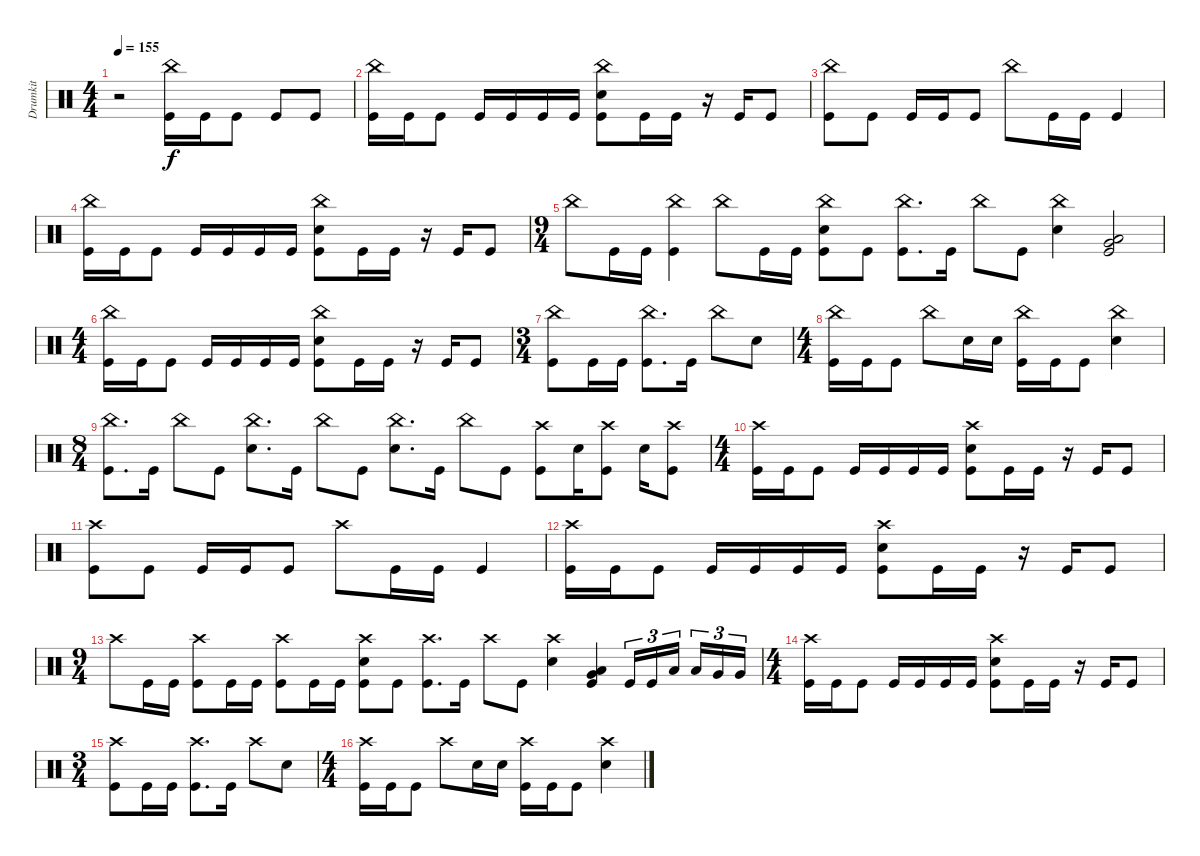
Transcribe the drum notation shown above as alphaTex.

\track ("Drumkit" "Drumkit") {instrument percussion}
\staff {score}
\articulation defaults
\ts (4 4)
\tempo 155
\clef neutral
\ks c
r.2{dy f} ("China (hit)" "Kick (hit)").16 "Kick (hit)".16 "Kick (hit)".8 "Kick (hit)".8 "Kick (hit)".8 |
("China (hit)" "Kick (hit)").16 "Kick (hit)".16 "Kick (hit)".8 "Kick (hit)".16 "Kick (hit)".16 "Kick (hit)".16 "Kick (hit)".16 ("China (hit)" "Kick (hit)" "Snare (hit) 2").8 "Kick (hit)".16 "Kick (hit)".16 r.16 "Kick (hit)".16 "Kick (hit)".8 |
("China (hit)" "Kick (hit)").8 "Kick (hit)".8 "Kick (hit)".16 "Kick (hit)".16 "Kick (hit)".8 "China (hit)".8 "Kick (hit)".16 "Kick (hit)".16 "Kick (hit)".4 |
("China (hit)" "Kick (hit)").16 "Kick (hit)".16 "Kick (hit)".8 "Kick (hit)".16 "Kick (hit)".16 "Kick (hit)".16 "Kick (hit)".16 ("China (hit)" "Kick (hit)" "Snare (hit) 2").8 "Kick (hit)".16 "Kick (hit)".16 r.16 "Kick (hit)".16 "Kick (hit)".8 |
\ts (9 4)
"China (hit)".8 "Kick (hit)".16 "Kick (hit)".16 ("China (hit)" "Kick (hit)").4 "China (hit)".8 "Kick (hit)".16 "Kick (hit)".16 ("China (hit)" "Kick (hit)" "Snare (hit) 2").8 "Kick (hit)".8 ("China (hit)" "Kick (hit)").8{d} "Kick (hit)".16 "China (hit)".8 "Kick (hit)".8 ("China (hit)" "Snare (hit) 2").4 ("Low Floor Tom (hit)" "Kick (hit)" "Very Low Tom (hit)").2 |
\ts (4 4)
("China (hit)" "Kick (hit)").16 "Kick (hit)".16 "Kick (hit)".8 "Kick (hit)".16 "Kick (hit)".16 "Kick (hit)".16 "Kick (hit)".16 ("China (hit)" "Kick (hit)" "Snare (hit) 2").8 "Kick (hit)".16 "Kick (hit)".16 r.16 "Kick (hit)".16 "Kick (hit)".8 |
\ts (3 4)
("China (hit)" "Kick (hit)").8 "Kick (hit)".16 "Kick (hit)".16 ("China (hit)" "Kick (hit)").8{d} "Kick (hit)".16 "China (hit)".8 "Snare (hit) 2".8 |
\ts (4 4)
("China (hit)" "Kick (hit)").16 "Kick (hit)".16 "Kick (hit)".8 "China (hit)".8 "Snare (hit) 2".16 "Snare (hit) 2".16 ("China (hit)" "Kick (hit)").16 "Kick (hit)".16 "Kick (hit)".8 ("China (hit)" "Snare (hit) 2").4 |
\ts (8 4)
("China (hit)" "Kick (hit)").8{d} "Kick (hit)".16 "China (hit)".8 "Kick (hit)".8 ("China (hit)" "Snare (hit) 2").8{d} "Kick (hit)".16 "China (hit)".8 "Kick (hit)".8 ("China (hit)" "Snare (hit) 2").8{d} "Kick (hit)".16 "China (hit)".8 "Kick (hit)".8 ("Crash high (hit)" "Kick (hit)").8 "Snare (hit) 2".16 ("Crash high (hit)" "Kick (hit)").8 "Snare (hit) 2".16 ("Crash high (hit)" "Kick (hit)").8 |
\ts (4 4)
("Crash high (hit)" "Kick (hit)").16 "Kick (hit)".16 "Kick (hit)".8 "Kick (hit)".16 "Kick (hit)".16 "Kick (hit)".16 "Kick (hit)".16 ("Crash high (hit)" "Kick (hit)" "Snare (hit) 2").8 "Kick (hit)".16 "Kick (hit)".16 r.16 "Kick (hit)".16 "Kick (hit)".8 |
("Crash high (hit)" "Kick (hit)").8 "Kick (hit)".8 "Kick (hit)".16 "Kick (hit)".16 "Kick (hit)".8 "Crash high (hit)".8 "Kick (hit)".16 "Kick (hit)".16 "Kick (hit)".4 |
("Crash high (hit)" "Kick (hit)").16 "Kick (hit)".16 "Kick (hit)".8 "Kick (hit)".16 "Kick (hit)".16 "Kick (hit)".16 "Kick (hit)".16 ("Crash high (hit)" "Kick (hit)" "Snare (hit) 2").8 "Kick (hit)".16 "Kick (hit)".16 r.16 "Kick (hit)".16 "Kick (hit)".8 |
\ts (9 4)
"Crash high (hit)".8 "Kick (hit)".16 "Kick (hit)".16 ("Crash high (hit)" "Kick (hit)").8 "Kick (hit)".16 "Kick (hit)".16 ("Crash high (hit)" "Kick (hit)").8 "Kick (hit)".16 "Kick (hit)".16 ("Crash high (hit)" "Kick (hit)" "Snare (hit) 2").8 "Kick (hit)".8 ("Crash high (hit)" "Kick (hit)").8{d} "Kick (hit)".16 "Crash high (hit)".8 "Kick (hit)".8 ("Crash high (hit)" "Snare (hit) 2").4 ("Low Floor Tom (hit)" "Kick (hit)" "Very Low Tom (hit)").4 "Kick (hit)".16{tu (3 2)} "Kick (hit)".16{tu (3 2)} "Low Tom (hit)".16{tu (3 2)} "Low Tom (hit)".16{tu (3 2)} "Very Low Tom (hit)".16{tu (3 2)} "Very Low Tom (hit)".16{tu (3 2)} |
\ts (4 4)
("Crash high (hit)" "Kick (hit)").16 "Kick (hit)".16 "Kick (hit)".8 "Kick (hit)".16 "Kick (hit)".16 "Kick (hit)".16 "Kick (hit)".16 ("Crash high (hit)" "Kick (hit)" "Snare (hit) 2").8 "Kick (hit)".16 "Kick (hit)".16 r.16 "Kick (hit)".16 "Kick (hit)".8 |
\ts (3 4)
("Crash high (hit)" "Kick (hit)").8 "Kick (hit)".16 "Kick (hit)".16 ("Crash high (hit)" "Kick (hit)").8{d} "Kick (hit)".16 "Crash high (hit)".8 "Snare (hit) 2".8 |
\ts (4 4)
("Crash high (hit)" "Kick (hit)").16 "Kick (hit)".16 "Kick (hit)".8 "Crash high (hit)".8 "Snare (hit) 2".16 "Snare (hit) 2".16 ("Crash high (hit)" "Kick (hit)").16 "Kick (hit)".16 "Kick (hit)".8 ("Crash high (hit)" "Snare (hit) 2").4
